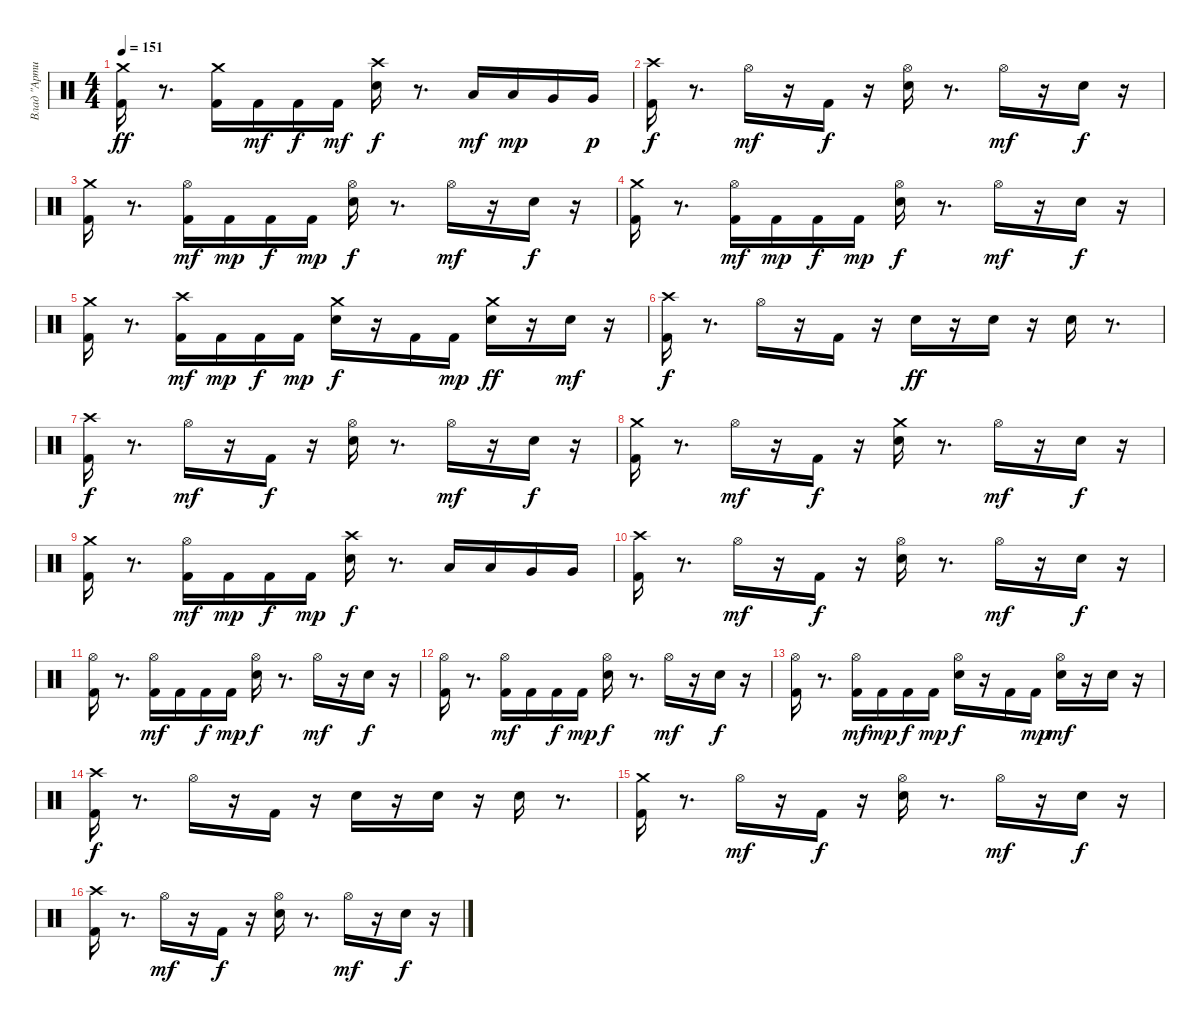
\track ("Влад \"Артист\"" "Влад \"Арти") {instrument percussion}
\staff {score}
\articulation defaults
\ts (4 4)
\tempo 151
\clef neutral
\ks c
("Crash medium (hit)" "Kick (hit) 2").16{dy ff} r.8{d} ("Kick (hit) 2" "Crash medium (hit)").16 "Kick (hit) 2".16{dy mf} "Kick (hit) 2".16{dy f} "Kick (hit) 2".16{dy mf} ("Snare (hit) 2" "Crash high (hit)").16{dy f} r.8{d} "Low Tom (hit)".16{dy mf} "Low Tom (hit)".16{dy mp} "Very Low Tom (hit)".16 "Very Low Tom (hit)".16{dy p} |
("Crash high (hit)" "Kick (hit) 2").16{dy f} r.8{d} "Hi-Hat (open)".16{dy mf} r.16 "Kick (hit) 2".16{dy f} r.16 ("Snare (hit) 2" "Hi-Hat (open)").16 r.8{d} "Hi-Hat (open)".16{dy mf} r.16 "Snare (hit) 2".16{dy f} r.16 |
("Kick (hit) 2" "Crash medium (hit)").16 r.8{d} ("Hi-Hat (open)" "Kick (hit) 2").16{dy mf} "Kick (hit) 2".16{dy mp} "Kick (hit) 2".16{dy f} "Kick (hit) 2".16{dy mp} ("Hi-Hat (open)" "Snare (hit) 2").16{dy f} r.8{d} "Hi-Hat (open)".16{dy mf} r.16 "Snare (hit) 2".16{dy f} r.16 |
("Crash medium (hit)" "Kick (hit) 2").16 r.8{d} ("Hi-Hat (open)" "Kick (hit) 2").16{dy mf} "Kick (hit) 2".16{dy mp} "Kick (hit) 2".16{dy f} "Kick (hit) 2".16{dy mp} ("Hi-Hat (open)" "Snare (hit) 2").16{dy f} r.8{d} "Hi-Hat (open)".16{dy mf} r.16 "Snare (hit) 2".16{dy f} r.16 |
("Kick (hit) 2" "Crash medium (hit)").16 r.8{d} ("Crash high (hit)" "Kick (hit) 2").16{dy mf} "Kick (hit) 2".16{dy mp} "Kick (hit) 2".16{dy f} "Kick (hit) 2".16{dy mp} ("Crash medium (hit)" "Snare (hit) 2").16{dy f} r.16 "Kick (hit) 2".16 "Kick (hit) 2".16{dy mp} ("Crash medium (hit)" "Snare (hit) 2").16{dy ff} r.16 "Snare (hit) 2".16{dy mf} r.16 |
("Kick (hit) 2" "Crash high (hit)").16{dy f} r.8{d} "Hi-Hat (open)".16 r.16 "Kick (hit) 2".16 r.16 "Snare (hit) 2".16{dy ff} r.16 "Snare (hit) 2".16 r.16 "Snare (hit) 2".16 r.8{d} |
("Crash high (hit)" "Kick (hit) 2").16{dy f} r.8{d} "Hi-Hat (open)".16{dy mf} r.16 "Kick (hit) 2".16{dy f} r.16 ("Snare (hit) 2" "Hi-Hat (open)").16 r.8{d} "Hi-Hat (open)".16{dy mf} r.16 "Snare (hit) 2".16{dy f} r.16 |
("Crash medium (hit)" "Kick (hit) 2").16 r.8{d} "Hi-Hat (open)".16{dy mf} r.16 "Kick (hit) 2".16{dy f} r.16 ("Crash medium (hit)" "Snare (hit) 2").16 r.8{d} "Hi-Hat (open)".16{dy mf} r.16 "Snare (hit) 2".16{dy f} r.16 |
("Crash medium (hit)" "Kick (hit) 2").16 r.8{d} ("Kick (hit) 2" "Hi-Hat (open)").16{dy mf} "Kick (hit) 2".16{dy mp} "Kick (hit) 2".16{dy f} "Kick (hit) 2".16{dy mp} ("Snare (hit) 2" "Crash high (hit)").16{dy f} r.8{d} "Low Tom (hit)".16 "Low Tom (hit)".16 "Very Low Tom (hit)".16 "Very Low Tom (hit)".16 |
("Crash high (hit)" "Kick (hit) 2").16 r.8{d} "Hi-Hat (open)".16{dy mf} r.16 "Kick (hit) 2".16{dy f} r.16 ("Snare (hit) 2" "Hi-Hat (open)").16 r.8{d} "Hi-Hat (open)".16{dy mf} r.16 "Snare (hit) 2".16{dy f} r.16 |
("Kick (hit) 2" "Hi-Hat (open)").16 r.8{d} ("Hi-Hat (open)" "Kick (hit) 2").16{dy mf} "Kick (hit) 2".16 "Kick (hit) 2".16{dy f} "Kick (hit) 2".16{dy mp} ("Hi-Hat (open)" "Snare (hit) 2").16{dy f} r.8{d} "Hi-Hat (open)".16{dy mf} r.16 "Snare (hit) 2".16{dy f} r.16 |
("Hi-Hat (open)" "Kick (hit) 2").16 r.8{d} ("Hi-Hat (open)" "Kick (hit) 2").16{dy mf} "Kick (hit) 2".16 "Kick (hit) 2".16{dy f} "Kick (hit) 2".16{dy mp} ("Hi-Hat (open)" "Snare (hit) 2").16{dy f} r.8{d} "Hi-Hat (open)".16{dy mf} r.16 "Snare (hit) 2".16{dy f} r.16 |
("Kick (hit) 2" "Hi-Hat (open)").16 r.8{d} ("Hi-Hat (open)" "Kick (hit) 2").16{dy mf} "Kick (hit) 2".16{dy mp} "Kick (hit) 2".16{dy f} "Kick (hit) 2".16{dy mp} ("Hi-Hat (open)" "Snare (hit) 2").16{dy f} r.16 "Kick (hit) 2".16 "Kick (hit) 2".16{dy mp} ("Hi-Hat (open)" "Snare (hit) 2").16{dy mf} r.16 "Snare (hit) 2".16 r.16 |
("Kick (hit) 2" "Crash high (hit)").16{dy f} r.8{d} "Hi-Hat (open)".16 r.16 "Kick (hit) 2".16 r.16 "Snare (hit) 2".16 r.16 "Snare (hit) 2".16 r.16 "Snare (hit) 2".16 r.8{d} |
("Crash medium (hit)" "Kick (hit) 2").16 r.8{d} "Hi-Hat (open)".16{dy mf} r.16 "Kick (hit) 2".16{dy f} r.16 ("Snare (hit) 2" "Hi-Hat (open)").16 r.8{d} "Hi-Hat (open)".16{dy mf} r.16 "Snare (hit) 2".16{dy f} r.16 |
("Crash high (hit)" "Kick (hit) 2").16 r.8{d} "Hi-Hat (open)".16{dy mf} r.16 "Kick (hit) 2".16{dy f} r.16 ("Hi-Hat (open)" "Snare (hit) 2").16 r.8{d} "Hi-Hat (open)".16{dy mf} r.16 "Snare (hit) 2".16{dy f} r.16
